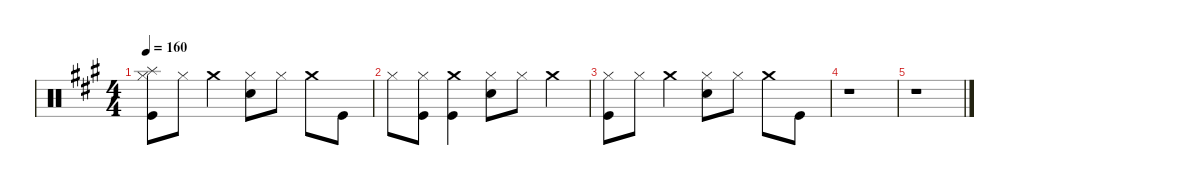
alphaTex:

\defaultSystemsLayout 4
\hideDynamics
\bracketExtendMode nobrackets
\singleTrackTrackNamePolicy hidden
\multiTrackTrackNamePolicy hidden
\firstSystemTrackNameMode fullname
\firstSystemTrackNameOrientation horizontal
\otherSystemsTrackNameOrientation horizontal
\track ("Drums" "drm.") {instrument percussion}
\staff {score}
\articulation defaults
\ts (4 4)
\tempo 160
\clef neutral
\ks f#minor
("Splash (hit)"{acc forcenatural} "Hi-Hat (closed)"{acc forcenatural} "Kick (hit)"{acc forcenatural}).8{dy f beam Down} "Hi-Hat (closed)"{acc forcenatural}.8{dy mp beam Down} "Crash medium (hit)"{acc forcenatural}.4{dy f beam Down} ("Hi-Hat (closed)"{acc forcenatural} "Snare (hit) 2"{acc forcenatural}).8{dy mp beam Down} "Hi-Hat (closed)"{acc forcenatural}.8{beam Down} "Crash medium (hit)"{acc forcenatural}.8{dy f beam Down} "Kick (hit)"{acc forcenatural}.8{beam Down} |
"Hi-Hat (closed)"{acc forcenatural}.8{dy mp beam Down} ("Hi-Hat (closed)"{acc forcenatural} "Kick (hit)"{acc forcenatural}).8{beam Down} ("Crash medium (hit)"{acc forcenatural} "Kick (hit)"{acc forcenatural}).4{dy f beam Down} ("Hi-Hat (closed)"{acc forcenatural} "Snare (hit) 2"{acc forcenatural}).8{dy mp beam Down} "Hi-Hat (closed)"{acc forcenatural}.8{beam Down} "Crash medium (hit)"{acc forcenatural}.4{dy f beam Down} |
("Hi-Hat (closed)"{acc forcenatural} "Kick (hit)"{acc forcenatural}).8{dy mp beam Down} "Hi-Hat (closed)"{acc forcenatural}.8{beam Down} "Crash medium (hit)"{acc forcenatural}.4{dy f beam Down} ("Hi-Hat (closed)"{acc forcenatural} "Snare (hit) 2"{acc forcenatural}).8{dy mp beam Down} "Hi-Hat (closed)"{acc forcenatural}.8{beam Down} "Crash medium (hit)"{acc forcenatural}.8{dy f beam Down} "Kick (hit)"{acc forcenatural}.8{beam Down} |
r.1{beam Down} |
r.1{beam Down}
